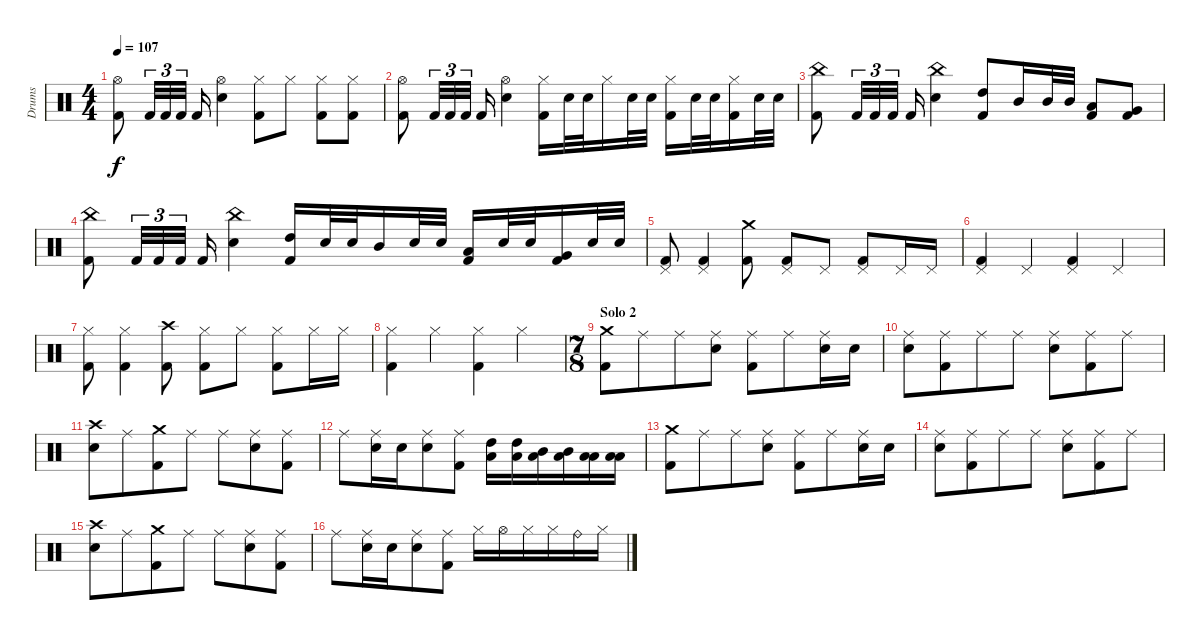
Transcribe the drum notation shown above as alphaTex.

\track ("Drums" "Drums") {instrument percussion}
\staff {score}
\articulation defaults
\ts (4 4)
\tempo 107
\clef neutral
\ks c
("Hi-Hat (open)" "Kick (hit) 2").8{dy f} "Kick (hit) 2".32{tu (3 2)} "Kick (hit) 2".32{tu (3 2)} "Kick (hit) 2".32{tu (3 2)} "Kick (hit) 2".16 ("Hi-Hat (open)" "Snare (hit) 2").4 ("Hi-Hat (closed)" "Kick (hit) 2").8 "Hi-Hat (closed)".8 ("Hi-Hat (closed)" "Kick (hit) 2").8 ("Hi-Hat (closed)" "Kick (hit) 2").8 |
("Hi-Hat (open)" "Kick (hit) 2").8 "Kick (hit) 2".32{tu (3 2)} "Kick (hit) 2".32{tu (3 2)} "Kick (hit) 2".32{tu (3 2)} "Kick (hit) 2".16 ("Hi-Hat (open)" "Snare (hit) 2").4 ("Hi-Hat (closed)" "Kick (hit) 2").16 "Electric Snare (hit)".32 "Electric Snare (hit)".32 "Hi-Hat (closed)".16 "Electric Snare (hit)".32 "Electric Snare (hit)".32 ("Hi-Hat (closed)" "Kick (hit) 2").16 "Electric Snare (hit)".32 "Electric Snare (hit)".32 ("Hi-Hat (closed)" "Kick (hit) 2").16 "Electric Snare (hit)".32 "Electric Snare (hit)".32 |
("China (hit)" "Kick (hit) 2").8 "Kick (hit) 2".32{tu (3 2)} "Kick (hit) 2".32{tu (3 2)} "Kick (hit) 2".32{tu (3 2)} "Kick (hit) 2".16 ("China (hit)" "Snare (hit) 2").4 ("High Tom (hit)" "Kick (hit) 2").8 "Mid Tom (hit)".16 "Mid Tom (hit)".32 "Mid Tom (hit)".32 ("Low Tom (hit)" "Kick (hit) 2").8 ("Very Low Tom (hit)" "Kick (hit) 2").8 |
("China (hit)" "Kick (hit) 2").8 "Kick (hit) 2".32{tu (3 2)} "Kick (hit) 2".32{tu (3 2)} "Kick (hit) 2".32{tu (3 2)} "Kick (hit) 2".16 ("China (hit)" "Snare (hit) 2").4 ("High Tom (hit)" "Kick (hit) 2").16 "Electric Snare (hit)".32 "Electric Snare (hit)".32 "Mid Tom (hit)".16 "Electric Snare (hit)".32 "Electric Snare (hit)".32 ("Low Tom (hit)" "Kick (hit) 2").16 "Electric Snare (hit)".32 "Electric Snare (hit)".32 ("Very Low Tom (hit)" "Kick (hit) 2").16 "Electric Snare (hit)".32 "Electric Snare (hit)".32 |
("Pedal Hi-Hat (hit)" "Kick (hit) 2").8 ("Pedal Hi-Hat (hit)" "Kick (hit) 2").4 ("Crash medium (hit)" "Kick (hit) 2").8 ("Pedal Hi-Hat (hit)" "Kick (hit) 2").8 "Pedal Hi-Hat (hit)".8 ("Pedal Hi-Hat (hit)" "Kick (hit) 2").8 "Pedal Hi-Hat (hit)".16 "Pedal Hi-Hat (hit)".16 |
("Pedal Hi-Hat (hit)" "Kick (hit) 2").4 "Pedal Hi-Hat (hit)".4 ("Pedal Hi-Hat (hit)" "Kick (hit) 2").4 "Pedal Hi-Hat (hit)".4 |
("Hi-Hat (closed)" "Kick (hit) 2").8 ("Hi-Hat (closed)" "Kick (hit) 2").4 ("Crash high (hit)" "Kick (hit) 2").8 ("Hi-Hat (closed)" "Kick (hit) 2").8 "Hi-Hat (closed)".8 ("Hi-Hat (closed)" "Kick (hit) 2").8 "Hi-Hat (closed)".16 "Hi-Hat (closed)".16 |
("Hi-Hat (closed)" "Kick (hit) 2").4 "Hi-Hat (closed)".4 ("Hi-Hat (closed)" "Kick (hit) 2").4 "Hi-Hat (closed)".4 |
\ts (7 8)
\section ("" "Solo 2")
("Crash medium (hit)" "Kick (hit) 2").8 "Ride (middle)".8 "Ride (middle)".8 ("Ride (middle)" "Electric Snare (hit)").8 ("Ride (middle)" "Kick (hit) 2").8 "Ride (middle)".8 ("Ride (middle)" "Electric Snare (hit)").16 "Electric Snare (hit)".16 |
("Ride (middle)" "Snare (hit) 2").8 ("Ride (middle)" "Kick (hit) 2").8 "Ride (middle)".8 "Ride (middle)".8 ("Ride (middle)" "Electric Snare (hit)").8 ("Ride (middle)" "Kick (hit) 2").8 "Ride (middle)".8 |
("Crash high (hit)" "Snare (hit) 2").8 "Ride (middle)".8 ("Crash medium (hit)" "Kick (hit) 2").8 "Ride (middle)".8 "Ride (middle)".8 ("Ride (middle)" "Electric Snare (hit)").8 ("Ride (middle)" "Kick (hit) 2").8 |
"Ride (middle)".8 ("Ride (middle)" "Electric Snare (hit)").16 "Electric Snare (hit)".16 ("Ride (middle)" "Snare (hit) 2").8 ("Ride (middle)" "Kick (hit) 2").8 ("High Tom (hit)" "Low Floor Tom (hit)").16 ("High Tom (hit)" "Low Floor Tom (hit)").16 ("Mid Tom (hit)" "Low Floor Tom (hit)").16 ("Mid Tom (hit)" "Low Floor Tom (hit)").16 ("Low Tom (hit)" "Low Floor Tom (hit)").16 ("Low Tom (hit)" "Low Floor Tom (hit)").16 |
("Crash medium (hit)" "Kick (hit) 2").8 "Ride (middle)".8 "Ride (middle)".8 ("Ride (middle)" "Electric Snare (hit)").8 ("Ride (middle)" "Kick (hit) 2").8 "Ride (middle)".8 ("Ride (middle)" "Electric Snare (hit)").16 "Electric Snare (hit)".16 |
("Ride (middle)" "Snare (hit) 2").8 ("Ride (middle)" "Kick (hit) 2").8 "Ride (middle)".8 "Ride (middle)".8 ("Ride (middle)" "Electric Snare (hit)").8 ("Ride (middle)" "Kick (hit) 2").8 "Ride (middle)".8 |
("Crash high (hit)" "Snare (hit) 2").8 "Ride (middle)".8 ("Crash medium (hit)" "Kick (hit) 2").8 "Ride (middle)".8 "Ride (middle)".8 ("Ride (middle)" "Electric Snare (hit)").8 ("Ride (middle)" "Kick (hit) 2").8 |
"Ride (middle)".8 ("Ride (middle)" "Electric Snare (hit)").16 "Electric Snare (hit)".16 ("Ride (middle)" "Snare (hit) 2").8 ("Ride (middle)" "Kick (hit) 2").8 "Hi-Hat (closed)".16 "Hi-Hat (open)".16 "Hi-Hat (closed)".16 "Hi-Hat (closed)".16 "Ride (bell)".16 "Hi-Hat (closed)".16
